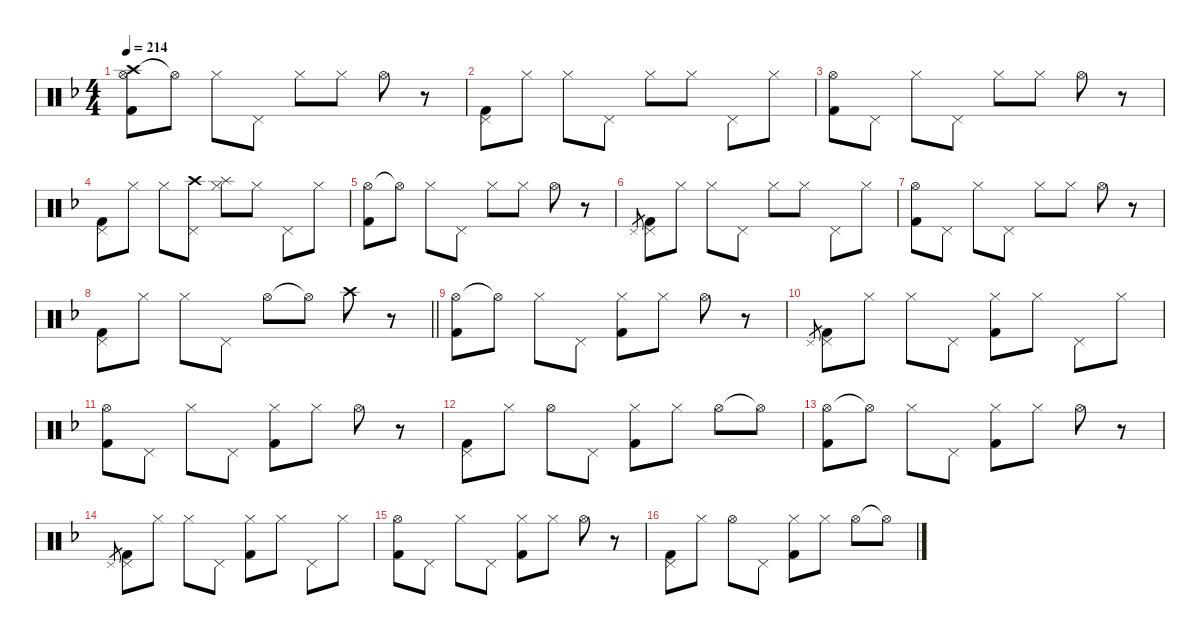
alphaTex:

\hideDynamics
\bracketExtendMode nobrackets
\singleTrackTrackNamePolicy hidden
\multiTrackTrackNamePolicy hidden
\firstSystemTrackNameMode fullname
\firstSystemTrackNameOrientation horizontal
\otherSystemsTrackNameOrientation horizontal
\track ("Drumkit" "Drums") {defaultSystemsLayout 4 instrument percussion}
\staff {score}
\articulation defaults
\ts (4 4)
\tempo 214
\clef neutral
\ks dminor
("Crash high (hit)"{acc forcenatural} "Hi-Hat (open)"{acc forcenatural} "Kick (hit) 2"{acc forcenatural}).8{dy mp beam Down} "Hi-Hat (open)"{t acc forcenatural}.8{beam Down} "Hi-Hat (closed)"{acc forcenatural}.8{dy p beam Down} "Pedal Hi-Hat (hit)"{acc forcenatural}.8{beam Down} "Hi-Hat (closed)"{acc forcenatural}.8{dy mp beam Down} "Hi-Hat (closed)"{acc forcenatural}.8{beam Down} "Hi-Hat (open)"{acc forcenatural}.8{beam Down} r.8{beam Down} |
("Pedal Hi-Hat (hit)"{acc forcenatural} "Kick (hit) 2"{acc forcenatural}).8{dy p beam Down} "Hi-Hat (closed)"{acc forcenatural}.8{beam Down} "Hi-Hat (closed)"{acc forcenatural}.8{dy mp beam Down} "Pedal Hi-Hat (hit)"{acc forcenatural}.8{dy mf beam Down} "Hi-Hat (closed)"{acc forcenatural}.8{dy mp beam Down} "Hi-Hat (closed)"{acc forcenatural}.8{beam Down} "Pedal Hi-Hat (hit)"{acc forcenatural}.8{dy p beam Down} "Hi-Hat (closed)"{acc forcenatural}.8{beam Down} |
("Hi-Hat (open)"{acc forcenatural} "Kick (hit) 2"{acc forcenatural}).8{dy mp beam Down} "Pedal Hi-Hat (hit)"{acc forcenatural}.8{beam Down} "Hi-Hat (closed)"{acc forcenatural}.8{dy p beam Down} "Pedal Hi-Hat (hit)"{acc forcenatural}.8{beam Down} "Hi-Hat (closed)"{acc forcenatural}.8{dy mp beam Down} "Hi-Hat (closed)"{acc forcenatural}.8{beam Down} "Hi-Hat (open)"{acc forcenatural}.8{beam Down} r.8{beam Down} |
("Pedal Hi-Hat (hit)"{acc forcenatural} "Kick (hit) 2"{acc forcenatural}).8{dy p beam Down} "Hi-Hat (closed)"{acc forcenatural}.8{beam Down} "Hi-Hat (closed)"{acc forcenatural}.8{dy mp beam Down} ("Crash high (hit)"{acc forcenatural} "Pedal Hi-Hat (hit)"{acc forcenatural}).8{beam Down} ("Splash (hit)"{acc forcenatural} "Hi-Hat (closed)"{acc forcenatural}).8{beam Down} "Hi-Hat (closed)"{acc forcenatural}.8{beam Down} "Pedal Hi-Hat (hit)"{acc forcenatural}.8{dy p beam Down} "Hi-Hat (closed)"{acc forcenatural}.8{beam Down} |
("Hi-Hat (open)"{acc forcenatural} "Kick (hit) 2"{acc forcenatural}).8{dy mp beam Down} "Hi-Hat (open)"{t acc forcenatural}.8{beam Down} "Hi-Hat (closed)"{acc forcenatural}.8{dy p beam Down} "Pedal Hi-Hat (hit)"{acc forcenatural}.8{beam Down} "Hi-Hat (closed)"{acc forcenatural}.8{dy mp beam Down} "Hi-Hat (closed)"{acc forcenatural}.8{beam Down} "Hi-Hat (open)"{acc forcenatural}.8{beam Down} r.8{beam Down} |
"Pedal Hi-Hat (hit)"{acc forcenatural}.8{gr dy p beam Up} ("Pedal Hi-Hat (hit)"{acc forcenatural} "Kick (hit) 2"{acc forcenatural}).8{beam Down} "Hi-Hat (closed)"{acc forcenatural}.8{beam Down} "Hi-Hat (closed)"{acc forcenatural}.8{dy mp beam Down} "Pedal Hi-Hat (hit)"{acc forcenatural}.8{dy mf beam Down} "Hi-Hat (closed)"{acc forcenatural}.8{dy mp beam Down} "Hi-Hat (closed)"{acc forcenatural}.8{beam Down} "Pedal Hi-Hat (hit)"{acc forcenatural}.8{dy p beam Down} "Hi-Hat (closed)"{acc forcenatural}.8{beam Down} |
("Hi-Hat (open)"{acc forcenatural} "Kick (hit) 2"{acc forcenatural}).8{dy mp beam Down} "Pedal Hi-Hat (hit)"{acc forcenatural}.8{beam Down} "Hi-Hat (closed)"{acc forcenatural}.8{dy p beam Down} "Pedal Hi-Hat (hit)"{acc forcenatural}.8{beam Down} "Hi-Hat (closed)"{acc forcenatural}.8{dy mp beam Down} "Hi-Hat (closed)"{acc forcenatural}.8{beam Down} "Hi-Hat (open)"{acc forcenatural}.8{beam Down} r.8{beam Down} |
\barLineRight lightlight
("Pedal Hi-Hat (hit)"{acc forcenatural} "Kick (hit) 2"{acc forcenatural}).8{dy p beam Down} "Hi-Hat (closed)"{acc forcenatural}.8{beam Down} "Hi-Hat (closed)"{acc forcenatural}.8{dy mp beam Down} "Pedal Hi-Hat (hit)"{acc forcenatural}.8{dy mf beam Down} "Hi-Hat (open)"{acc forcenatural}.8{dy mp beam Down} "Hi-Hat (open)"{t acc forcenatural}.8{beam Down} "Crash high (hit)"{acc forcenatural}.8{dy p beam Down} r.8{beam Down} |
("Hi-Hat (open)"{acc forcenatural} "Kick (hit) 2"{acc forcenatural}).8{beam Down} "Hi-Hat (open)"{t acc forcenatural}.8{beam Down} "Hi-Hat (closed)"{acc forcenatural}.8{dy mp beam Down} "Pedal Hi-Hat (hit)"{acc forcenatural}.8{beam Down} ("Hi-Hat (closed)"{acc forcenatural} "Kick (hit) 2"{acc forcenatural}).8{beam Down} "Hi-Hat (closed)"{acc forcenatural}.8{beam Down} "Hi-Hat (open)"{acc forcenatural}.8{beam Down} r.8{beam Down} |
"Pedal Hi-Hat (hit)"{acc forcenatural}.8{gr dy p beam Up} ("Pedal Hi-Hat (hit)"{acc forcenatural} "Kick (hit) 2"{acc forcenatural}).8{beam Down} "Hi-Hat (closed)"{acc forcenatural}.8{beam Down} "Hi-Hat (closed)"{acc forcenatural}.8{dy mp beam Down} "Pedal Hi-Hat (hit)"{acc forcenatural}.8{dy mf beam Down} ("Hi-Hat (closed)"{acc forcenatural} "Kick (hit) 2"{acc forcenatural}).8{dy mp beam Down} "Hi-Hat (closed)"{acc forcenatural}.8{beam Down} "Pedal Hi-Hat (hit)"{acc forcenatural}.8{beam Down} "Hi-Hat (closed)"{acc forcenatural}.8{dy p beam Down} |
("Hi-Hat (open)"{acc forcenatural} "Kick (hit) 2"{acc forcenatural}).8{beam Down} "Pedal Hi-Hat (hit)"{acc forcenatural}.8{beam Down} "Hi-Hat (closed)"{acc forcenatural}.8{dy mp beam Down} "Pedal Hi-Hat (hit)"{acc forcenatural}.8{beam Down} ("Hi-Hat (closed)"{acc forcenatural} "Kick (hit) 2"{acc forcenatural}).8{beam Down} "Hi-Hat (closed)"{acc forcenatural}.8{beam Down} "Hi-Hat (open)"{acc forcenatural}.8{beam Down} r.8{beam Down} |
("Pedal Hi-Hat (hit)"{acc forcenatural} "Kick (hit) 2"{acc forcenatural}).8{beam Down} "Hi-Hat (closed)"{acc forcenatural}.8{dy p beam Down} "Hi-Hat (open)"{acc forcenatural}.8{dy mp beam Down} "Pedal Hi-Hat (hit)"{acc forcenatural}.8{dy f beam Down} ("Hi-Hat (closed)"{acc forcenatural} "Kick (hit) 2"{acc forcenatural}).8{dy mp beam Down} "Hi-Hat (closed)"{acc forcenatural}.8{beam Down} "Hi-Hat (open)"{acc forcenatural}.8{dy p beam Down} "Hi-Hat (open)"{t acc forcenatural}.8{beam Down} |
("Hi-Hat (open)"{acc forcenatural} "Kick (hit) 2"{acc forcenatural}).8{beam Down} "Hi-Hat (open)"{t acc forcenatural}.8{beam Down} "Hi-Hat (closed)"{acc forcenatural}.8{dy mp beam Down} "Pedal Hi-Hat (hit)"{acc forcenatural}.8{beam Down} ("Hi-Hat (closed)"{acc forcenatural} "Kick (hit) 2"{acc forcenatural}).8{beam Down} "Hi-Hat (closed)"{acc forcenatural}.8{beam Down} "Hi-Hat (open)"{acc forcenatural}.8{beam Down} r.8{beam Down} |
"Pedal Hi-Hat (hit)"{acc forcenatural}.8{gr dy p beam Up} ("Pedal Hi-Hat (hit)"{acc forcenatural} "Kick (hit) 2"{acc forcenatural}).8{beam Down} "Hi-Hat (closed)"{acc forcenatural}.8{beam Down} "Hi-Hat (closed)"{acc forcenatural}.8{dy mp beam Down} "Pedal Hi-Hat (hit)"{acc forcenatural}.8{dy mf beam Down} ("Hi-Hat (closed)"{acc forcenatural} "Kick (hit) 2"{acc forcenatural}).8{dy mp beam Down} "Hi-Hat (closed)"{acc forcenatural}.8{beam Down} "Pedal Hi-Hat (hit)"{acc forcenatural}.8{beam Down} "Hi-Hat (closed)"{acc forcenatural}.8{dy p beam Down} |
("Hi-Hat (open)"{acc forcenatural} "Kick (hit) 2"{acc forcenatural}).8{beam Down} "Pedal Hi-Hat (hit)"{acc forcenatural}.8{beam Down} "Hi-Hat (closed)"{acc forcenatural}.8{dy mp beam Down} "Pedal Hi-Hat (hit)"{acc forcenatural}.8{beam Down} ("Hi-Hat (closed)"{acc forcenatural} "Kick (hit) 2"{acc forcenatural}).8{beam Down} "Hi-Hat (closed)"{acc forcenatural}.8{beam Down} "Hi-Hat (open)"{acc forcenatural}.8{beam Down} r.8{beam Down} |
("Pedal Hi-Hat (hit)"{acc forcenatural} "Kick (hit) 2"{acc forcenatural}).8{beam Down} "Hi-Hat (closed)"{acc forcenatural}.8{dy p beam Down} "Hi-Hat (open)"{acc forcenatural}.8{dy mp beam Down} "Pedal Hi-Hat (hit)"{acc forcenatural}.8{dy f beam Down} ("Hi-Hat (closed)"{acc forcenatural} "Kick (hit) 2"{acc forcenatural}).8{dy mp beam Down} "Hi-Hat (closed)"{acc forcenatural}.8{beam Down} "Hi-Hat (open)"{acc forcenatural}.8{dy p beam Down} "Hi-Hat (open)"{t acc forcenatural}.8{beam Down}
